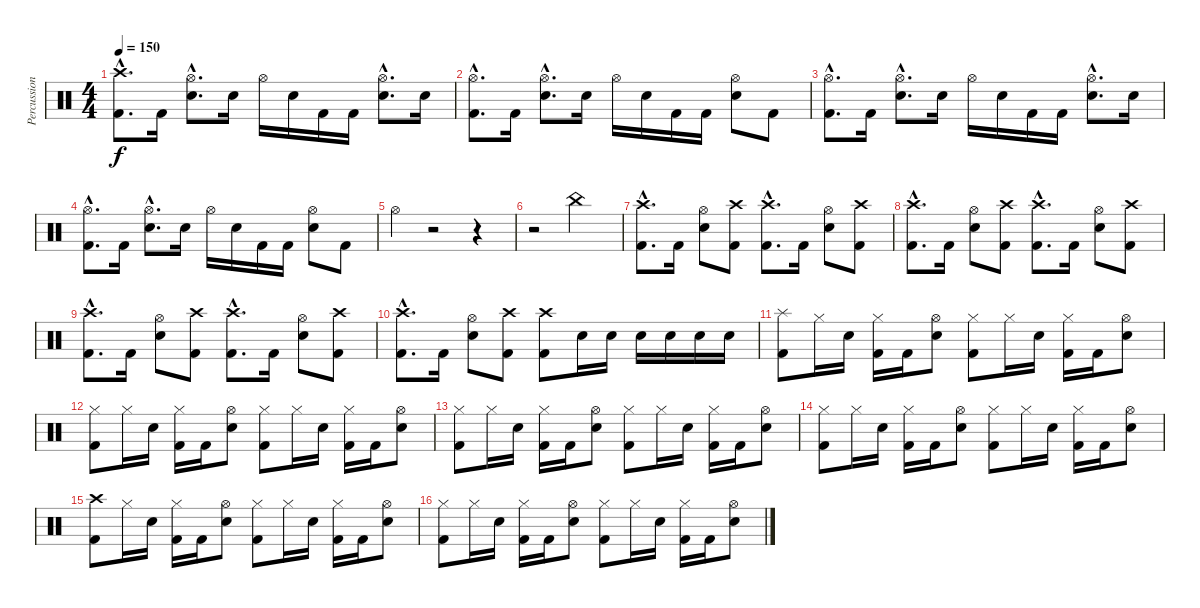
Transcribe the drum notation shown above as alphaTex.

\track ("Percussion" "Percussion") {instrument percussion}
\staff {score}
\articulation defaults
\ts (4 4)
\tempo 150
\clef neutral
\ks c
("Kick (hit) 2"{hac} "Crash high (hit)"{hac}).8{d dy f} "Kick (hit) 2".16 ("Electric Snare (hit)"{hac} "Hi-Hat (open)"{hac}).8{d} "Electric Snare (hit)".16 "Hi-Hat (open)".16 "Electric Snare (hit)".16 "Kick (hit) 2".16 "Kick (hit) 2".16 ("Electric Snare (hit)"{hac} "Hi-Hat (open)"{hac}).8{d} "Electric Snare (hit)".16 |
("Kick (hit) 2"{hac} "Hi-Hat (open)"{hac}).8{d} "Kick (hit) 2".16 ("Electric Snare (hit)"{hac} "Hi-Hat (open)"{hac}).8{d} "Electric Snare (hit)".16 "Hi-Hat (open)".16 "Electric Snare (hit)".16 "Kick (hit) 2".16 "Kick (hit) 2".16 ("Electric Snare (hit)" "Hi-Hat (open)").8 "Kick (hit) 2".8 |
("Kick (hit) 2"{hac} "Hi-Hat (open)"{hac}).8{d} "Kick (hit) 2".16 ("Electric Snare (hit)"{hac} "Hi-Hat (open)"{hac}).8{d} "Electric Snare (hit)".16 "Hi-Hat (open)".16 "Electric Snare (hit)".16 "Kick (hit) 2".16 "Kick (hit) 2".16 ("Electric Snare (hit)"{hac} "Hi-Hat (open)"{hac}).8{d} "Electric Snare (hit)".16 |
("Kick (hit) 2"{hac} "Hi-Hat (open)"{hac}).8{d} "Kick (hit) 2".16 ("Electric Snare (hit)"{hac} "Hi-Hat (open)"{hac}).8{d} "Electric Snare (hit)".16 "Hi-Hat (open)".16 "Electric Snare (hit)".16 "Kick (hit) 2".16 "Kick (hit) 2".16 ("Electric Snare (hit)" "Hi-Hat (open)").8 "Kick (hit) 2".8 |
"Hi-Hat (open)".4 r.2 r.4 |
r.2 "China (hit)".2 |
("Kick (hit) 2"{hac} "Crash high (hit)"{hac}).8{d} "Kick (hit) 2".16 ("Electric Snare (hit)" "Hi-Hat (open)").8 ("Kick (hit) 2" "Crash high (hit)").8 ("Kick (hit) 2"{hac} "Crash high (hit)"{hac}).8{d} "Kick (hit) 2".16 ("Electric Snare (hit)" "Hi-Hat (open)").8 ("Kick (hit) 2" "Crash high (hit)").8 |
("Kick (hit) 2"{hac} "Crash high (hit)"{hac}).8{d} "Kick (hit) 2".16 ("Electric Snare (hit)" "Hi-Hat (open)").8 ("Kick (hit) 2" "Crash high (hit)").8 ("Kick (hit) 2"{hac} "Crash high (hit)"{hac}).8{d} "Kick (hit) 2".16 ("Electric Snare (hit)" "Hi-Hat (open)").8 ("Kick (hit) 2" "Crash high (hit)").8 |
("Kick (hit) 2"{hac} "Crash high (hit)"{hac}).8{d} "Kick (hit) 2".16 ("Electric Snare (hit)" "Hi-Hat (open)").8 ("Kick (hit) 2" "Crash high (hit)").8 ("Kick (hit) 2"{hac} "Crash high (hit)"{hac}).8{d} "Kick (hit) 2".16 ("Electric Snare (hit)" "Hi-Hat (open)").8 ("Kick (hit) 2" "Crash high (hit)").8 |
("Kick (hit) 2"{hac} "Crash high (hit)"{hac}).8{d} "Kick (hit) 2".16 ("Electric Snare (hit)" "Hi-Hat (open)").8 ("Kick (hit) 2" "Crash high (hit)").8 ("Kick (hit) 2" "Crash high (hit)").8 "Electric Snare (hit)".16 "Electric Snare (hit)".16 "Electric Snare (hit)".16 "Electric Snare (hit)".16 "Electric Snare (hit)".16 "Electric Snare (hit)".16 |
("Kick (hit) 2" "Splash (hit)").8 "Hi-Hat (closed)".16 "Electric Snare (hit)".16 ("Kick (hit) 2" "Hi-Hat (closed)").16 "Kick (hit) 2".16 ("Electric Snare (hit)" "Hi-Hat (open)").8 ("Kick (hit) 2" "Hi-Hat (closed)").8 "Hi-Hat (closed)".16 "Electric Snare (hit)".16 ("Kick (hit) 2" "Hi-Hat (closed)").16 "Kick (hit) 2".16 ("Electric Snare (hit)" "Hi-Hat (open)").8 |
("Kick (hit) 2" "Hi-Hat (closed)").8 "Hi-Hat (closed)".16 "Electric Snare (hit)".16 ("Kick (hit) 2" "Hi-Hat (closed)").16 "Kick (hit) 2".16 ("Electric Snare (hit)" "Hi-Hat (open)").8 ("Kick (hit) 2" "Hi-Hat (closed)").8 "Hi-Hat (closed)".16 "Electric Snare (hit)".16 ("Kick (hit) 2" "Hi-Hat (closed)").16 "Kick (hit) 2".16 ("Electric Snare (hit)" "Hi-Hat (open)").8 |
("Kick (hit) 2" "Hi-Hat (closed)").8 "Hi-Hat (closed)".16 "Electric Snare (hit)".16 ("Kick (hit) 2" "Hi-Hat (closed)").16 "Kick (hit) 2".16 ("Electric Snare (hit)" "Hi-Hat (open)").8 ("Kick (hit) 2" "Hi-Hat (closed)").8 "Hi-Hat (closed)".16 "Electric Snare (hit)".16 ("Kick (hit) 2" "Hi-Hat (closed)").16 "Kick (hit) 2".16 ("Electric Snare (hit)" "Hi-Hat (open)").8 |
("Kick (hit) 2" "Hi-Hat (closed)").8 "Hi-Hat (closed)".16 "Electric Snare (hit)".16 ("Kick (hit) 2" "Hi-Hat (closed)").16 "Kick (hit) 2".16 ("Electric Snare (hit)" "Hi-Hat (open)").8 ("Kick (hit) 2" "Hi-Hat (closed)").8 "Hi-Hat (closed)".16 "Electric Snare (hit)".16 ("Kick (hit) 2" "Hi-Hat (closed)").16 "Kick (hit) 2".16 ("Electric Snare (hit)" "Hi-Hat (open)").8 |
("Kick (hit) 2" "Crash high (hit)").8 "Hi-Hat (closed)".16 "Electric Snare (hit)".16 ("Kick (hit) 2" "Hi-Hat (closed)").16 "Kick (hit) 2".16 ("Electric Snare (hit)" "Hi-Hat (open)").8 ("Kick (hit) 2" "Hi-Hat (closed)").8 "Hi-Hat (closed)".16 "Electric Snare (hit)".16 ("Kick (hit) 2" "Hi-Hat (closed)").16 "Kick (hit) 2".16 ("Electric Snare (hit)" "Hi-Hat (open)").8 |
("Kick (hit) 2" "Hi-Hat (closed)").8 "Hi-Hat (closed)".16 "Electric Snare (hit)".16 ("Kick (hit) 2" "Hi-Hat (closed)").16 "Kick (hit) 2".16 ("Electric Snare (hit)" "Hi-Hat (open)").8 ("Kick (hit) 2" "Hi-Hat (closed)").8 "Hi-Hat (closed)".16 "Electric Snare (hit)".16 ("Kick (hit) 2" "Hi-Hat (closed)").16 "Kick (hit) 2".16 ("Electric Snare (hit)" "Hi-Hat (open)").8
